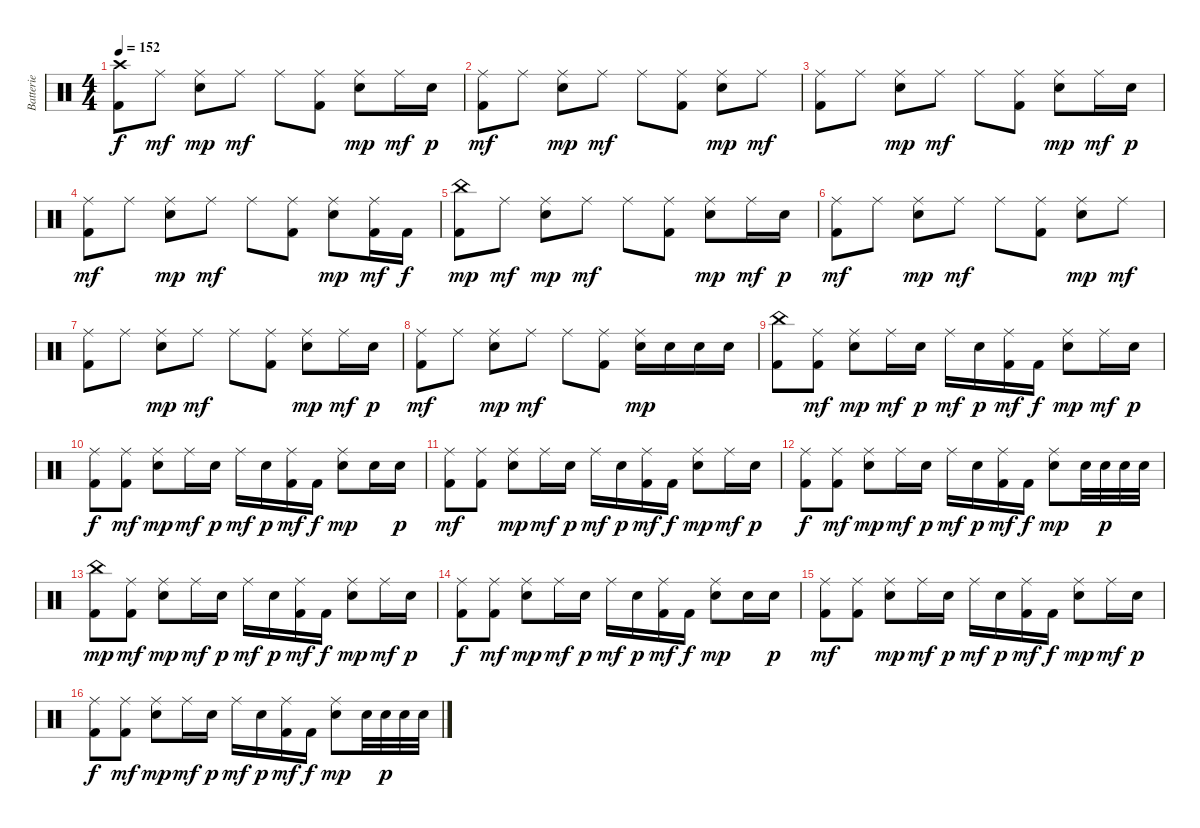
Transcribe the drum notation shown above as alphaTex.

\track ("Batterie" "Batterie") {instrument percussion}
\staff {score}
\articulation defaults
\ts (4 4)
\section ("" "")
\tempo 152
\clef neutral
\ks c
("Crash high (hit)" "Kick (hit) 2").8{dy f volume 12} "Ride (middle)".8{dy mf} ("Ride (middle)" "Snare (hit) 2").8{dy mp} "Ride (middle)".8{dy mf} "Ride (middle)".8 ("Ride (middle)" "Kick (hit) 2").8 ("Ride (middle)" "Snare (hit) 2").8{dy mp} "Ride (middle)".16{dy mf} "Snare (hit) 2".16{dy p} |
("Ride (middle)" "Kick (hit) 2").8{dy mf} "Ride (middle)".8 ("Ride (middle)" "Snare (hit) 2").8{dy mp} "Ride (middle)".8{dy mf} "Ride (middle)".8 ("Ride (middle)" "Kick (hit) 2").8 ("Ride (middle)" "Snare (hit) 2").8{dy mp} "Ride (middle)".8{dy mf} |
("Ride (middle)" "Kick (hit) 2").8 "Ride (middle)".8 ("Ride (middle)" "Snare (hit) 2").8{dy mp} "Ride (middle)".8{dy mf} "Ride (middle)".8 ("Ride (middle)" "Kick (hit) 2").8 ("Ride (middle)" "Snare (hit) 2").8{dy mp} "Ride (middle)".16{dy mf} "Snare (hit) 2".16{dy p} |
("Ride (middle)" "Kick (hit) 2").8{dy mf} "Ride (middle)".8 ("Ride (middle)" "Snare (hit) 2").8{dy mp} "Ride (middle)".8{dy mf} "Ride (middle)".8 ("Ride (middle)" "Kick (hit) 2").8 ("Ride (middle)" "Snare (hit) 2").8{dy mp} ("Ride (middle)" "Kick (hit) 2").16{dy mf} "Kick (hit) 2".16{dy f} |
("China (hit)" "Kick (hit) 2").8{dy mp} "Ride (middle)".8{dy mf} ("Ride (middle)" "Snare (hit) 2").8{dy mp} "Ride (middle)".8{dy mf} "Ride (middle)".8 ("Ride (middle)" "Kick (hit) 2").8 ("Ride (middle)" "Snare (hit) 2").8{dy mp} "Ride (middle)".16{dy mf} "Snare (hit) 2".16{dy p} |
("Ride (middle)" "Kick (hit) 2").8{dy mf} "Ride (middle)".8 ("Ride (middle)" "Snare (hit) 2").8{dy mp} "Ride (middle)".8{dy mf} "Ride (middle)".8 ("Ride (middle)" "Kick (hit) 2").8 ("Ride (middle)" "Snare (hit) 2").8{dy mp} "Ride (middle)".8{dy mf} |
("Ride (middle)" "Kick (hit) 2").8 "Ride (middle)".8 ("Ride (middle)" "Snare (hit) 2").8{dy mp} "Ride (middle)".8{dy mf} "Ride (middle)".8 ("Ride (middle)" "Kick (hit) 2").8 ("Ride (middle)" "Snare (hit) 2").8{dy mp} "Ride (middle)".16{dy mf} "Snare (hit) 2".16{dy p} |
("Ride (middle)" "Kick (hit) 2").8{dy mf} "Ride (middle)".8 ("Ride (middle)" "Snare (hit) 2").8{dy mp} "Ride (middle)".8{dy mf} "Ride (middle)".8 ("Ride (middle)" "Kick (hit) 2").8 ("Ride (middle)" "Snare (hit) 2").16{dy mp} "Snare (hit) 2".16 "Snare (hit) 2".16 "Snare (hit) 2".16 |
("China (hit)" "Kick (hit) 2").8 ("Ride (middle)" "Kick (hit) 2").8{dy mf} ("Ride (middle)" "Snare (hit) 2").8{dy mp} "Ride (middle)".16{dy mf} "Snare (hit) 2".16{dy p} "Ride (middle)".16{dy mf} "Snare (hit) 2".16{dy p} ("Ride (middle)" "Kick (hit) 2").16{dy mf} "Kick (hit) 2".16{dy f} ("Ride (middle)" "Snare (hit) 2").8{dy mp} "Ride (middle)".16{dy mf} "Snare (hit) 2".16{dy p} |
("Ride (middle)" "Kick (hit) 2").8{dy f} ("Ride (middle)" "Kick (hit) 2").8{dy mf} ("Ride (middle)" "Snare (hit) 2").8{dy mp} "Ride (middle)".16{dy mf} "Snare (hit) 2".16{dy p} "Ride (middle)".16{dy mf} "Snare (hit) 2".16{dy p} ("Ride (middle)" "Kick (hit) 2").16{dy mf} "Kick (hit) 2".16{dy f} ("Ride (middle)" "Snare (hit) 2").8{dy mp} "Snare (hit) 2".16 "Snare (hit) 2".16{dy p} |
("Ride (middle)" "Kick (hit) 2").8{dy mf} ("Ride (middle)" "Kick (hit) 2").8 ("Ride (middle)" "Snare (hit) 2").8{dy mp} "Ride (middle)".16{dy mf} "Snare (hit) 2".16{dy p} "Ride (middle)".16{dy mf} "Snare (hit) 2".16{dy p} ("Ride (middle)" "Kick (hit) 2").16{dy mf} "Kick (hit) 2".16{dy f} ("Ride (middle)" "Snare (hit) 2").8{dy mp} "Ride (middle)".16{dy mf} "Snare (hit) 2".16{dy p} |
("Ride (middle)" "Kick (hit) 2").8{dy f} ("Ride (middle)" "Kick (hit) 2").8{dy mf} ("Ride (middle)" "Snare (hit) 2").8{dy mp} "Ride (middle)".16{dy mf} "Snare (hit) 2".16{dy p} "Ride (middle)".16{dy mf} "Snare (hit) 2".16{dy p} ("Ride (middle)" "Kick (hit) 2").16{dy mf} "Kick (hit) 2".16{dy f} ("Ride (middle)" "Snare (hit) 2").8{dy mp} "Snare (hit) 2".32 "Snare (hit) 2".32{dy p} "Snare (hit) 2".32 "Snare (hit) 2".32 |
("China (hit)" "Kick (hit) 2").8{dy mp} ("Ride (middle)" "Kick (hit) 2").8{dy mf} ("Ride (middle)" "Snare (hit) 2").8{dy mp} "Ride (middle)".16{dy mf} "Snare (hit) 2".16{dy p} "Ride (middle)".16{dy mf} "Snare (hit) 2".16{dy p} ("Ride (middle)" "Kick (hit) 2").16{dy mf} "Kick (hit) 2".16{dy f} ("Ride (middle)" "Snare (hit) 2").8{dy mp} "Ride (middle)".16{dy mf} "Snare (hit) 2".16{dy p} |
("Ride (middle)" "Kick (hit) 2").8{dy f} ("Ride (middle)" "Kick (hit) 2").8{dy mf} ("Ride (middle)" "Snare (hit) 2").8{dy mp} "Ride (middle)".16{dy mf} "Snare (hit) 2".16{dy p} "Ride (middle)".16{dy mf} "Snare (hit) 2".16{dy p} ("Ride (middle)" "Kick (hit) 2").16{dy mf} "Kick (hit) 2".16{dy f} ("Ride (middle)" "Snare (hit) 2").8{dy mp} "Snare (hit) 2".16 "Snare (hit) 2".16{dy p} |
("Ride (middle)" "Kick (hit) 2").8{dy mf} ("Ride (middle)" "Kick (hit) 2").8 ("Ride (middle)" "Snare (hit) 2").8{dy mp} "Ride (middle)".16{dy mf} "Snare (hit) 2".16{dy p} "Ride (middle)".16{dy mf} "Snare (hit) 2".16{dy p} ("Ride (middle)" "Kick (hit) 2").16{dy mf} "Kick (hit) 2".16{dy f} ("Ride (middle)" "Snare (hit) 2").8{dy mp} "Ride (middle)".16{dy mf} "Snare (hit) 2".16{dy p} |
("Ride (middle)" "Kick (hit) 2").8{dy f} ("Ride (middle)" "Kick (hit) 2").8{dy mf} ("Ride (middle)" "Snare (hit) 2").8{dy mp} "Ride (middle)".16{dy mf} "Snare (hit) 2".16{dy p} "Ride (middle)".16{dy mf} "Snare (hit) 2".16{dy p} ("Ride (middle)" "Kick (hit) 2").16{dy mf} "Kick (hit) 2".16{dy f} ("Ride (middle)" "Snare (hit) 2").8{dy mp} "Snare (hit) 2".32 "Snare (hit) 2".32{dy p} "Snare (hit) 2".32 "Snare (hit) 2".32
